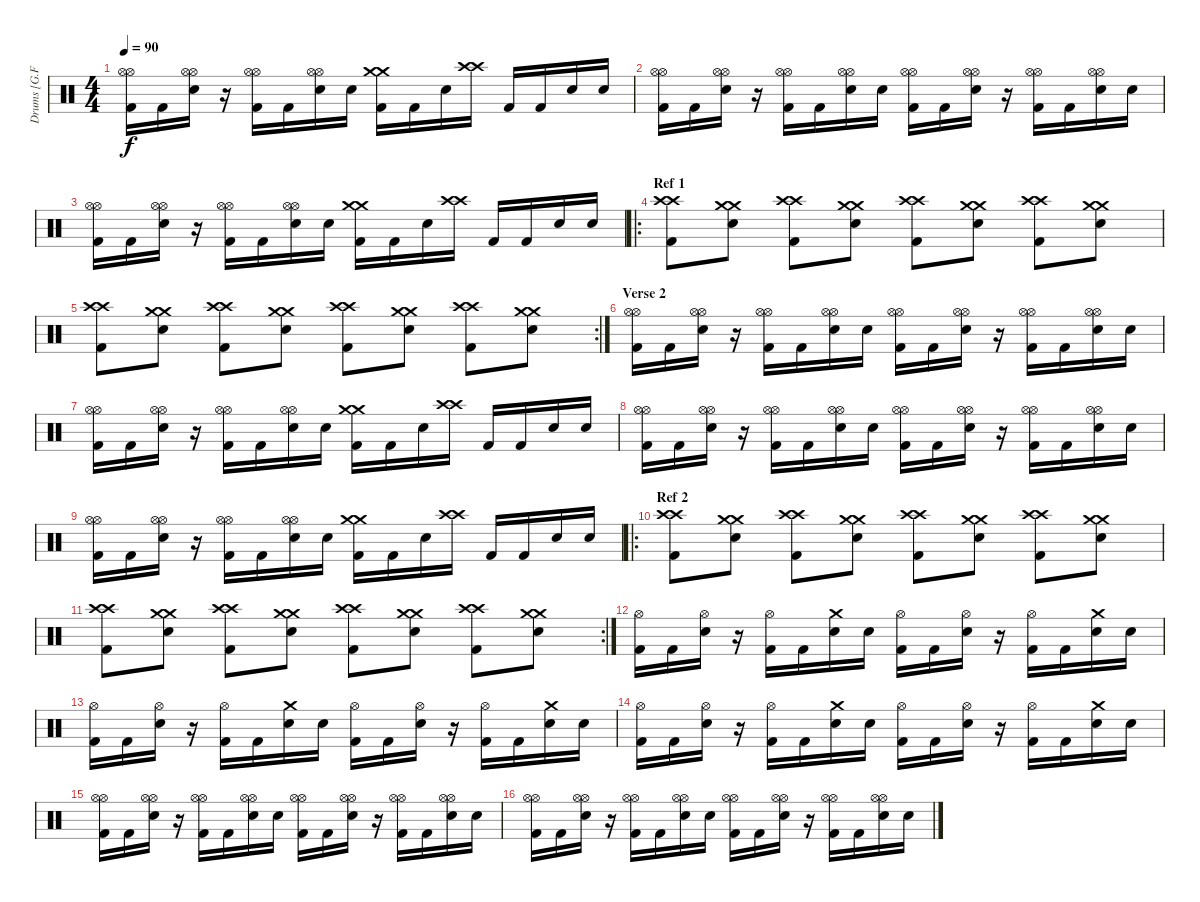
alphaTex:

\track ("Drums [G.Fish]" "Drums [G.F") {instrument percussion}
\staff {score}
\articulation defaults
\ts (4 4)
\tempo 90
\clef neutral
\ks c
("Hi-Hat (open)" "Hi-Hat (open)" "Kick (hit) 2").16{dy f} "Kick (hit) 2".16 ("Hi-Hat (open)" "Hi-Hat (open)" "Snare (hit) 2").16 r.16 ("Hi-Hat (open)" "Hi-Hat (open)" "Kick (hit) 2").16 "Kick (hit) 2".16 ("Hi-Hat (open)" "Hi-Hat (open)" "Snare (hit) 2").16 "Snare (hit) 2".16 ("Crash medium (hit)" "Crash medium (hit)" "Kick (hit) 2").16 "Kick (hit) 2".16 "Snare (hit) 2".16 ("Crash high (hit)" "Crash high (hit)").16 "Kick (hit) 2".16 "Kick (hit) 2".16 "Snare (hit) 2".16 "Snare (hit) 2".16 |
("Hi-Hat (open)" "Hi-Hat (open)" "Kick (hit) 2").16 "Kick (hit) 2".16 ("Hi-Hat (open)" "Hi-Hat (open)" "Snare (hit) 2").16 r.16 ("Hi-Hat (open)" "Hi-Hat (open)" "Kick (hit) 2").16 "Kick (hit) 2".16 ("Hi-Hat (open)" "Hi-Hat (open)" "Snare (hit) 2").16 "Snare (hit) 2".16 ("Hi-Hat (open)" "Hi-Hat (open)" "Kick (hit) 2").16 "Kick (hit) 2".16 ("Hi-Hat (open)" "Hi-Hat (open)" "Snare (hit) 2").16 r.16 ("Hi-Hat (open)" "Hi-Hat (open)" "Kick (hit) 2").16 "Kick (hit) 2".16 ("Hi-Hat (open)" "Hi-Hat (open)" "Snare (hit) 2").16 "Snare (hit) 2".16 |
("Hi-Hat (open)" "Hi-Hat (open)" "Kick (hit) 2").16 "Kick (hit) 2".16 ("Hi-Hat (open)" "Hi-Hat (open)" "Snare (hit) 2").16 r.16 ("Hi-Hat (open)" "Hi-Hat (open)" "Kick (hit) 2").16 "Kick (hit) 2".16 ("Hi-Hat (open)" "Hi-Hat (open)" "Snare (hit) 2").16 "Snare (hit) 2".16 ("Crash medium (hit)" "Crash medium (hit)" "Kick (hit) 2").16 "Kick (hit) 2".16 "Snare (hit) 2".16 ("Crash high (hit)" "Crash high (hit)").16 "Kick (hit) 2".16 "Kick (hit) 2".16 "Snare (hit) 2".16 "Snare (hit) 2".16 |
\ro
\section ("" "Ref 1")
("Crash high (hit)" "Crash high (hit)" "Kick (hit) 2").8 ("Crash medium (hit)" "Crash medium (hit)" "Snare (hit) 2").8 ("Crash high (hit)" "Crash high (hit)" "Kick (hit) 2").8 ("Crash medium (hit)" "Crash medium (hit)" "Snare (hit) 2").8 ("Crash high (hit)" "Crash high (hit)" "Kick (hit) 2").8 ("Crash medium (hit)" "Crash medium (hit)" "Snare (hit) 2").8 ("Crash high (hit)" "Crash high (hit)" "Kick (hit) 2").8 ("Crash medium (hit)" "Crash medium (hit)" "Snare (hit) 2").8 |
\rc 2
("Crash high (hit)" "Crash high (hit)" "Kick (hit) 2").8 ("Crash medium (hit)" "Crash medium (hit)" "Snare (hit) 2").8 ("Crash high (hit)" "Crash high (hit)" "Kick (hit) 2").8 ("Crash medium (hit)" "Crash medium (hit)" "Snare (hit) 2").8 ("Crash high (hit)" "Crash high (hit)" "Kick (hit) 2").8 ("Crash medium (hit)" "Crash medium (hit)" "Snare (hit) 2").8 ("Crash high (hit)" "Crash high (hit)" "Kick (hit) 2").8 ("Crash medium (hit)" "Crash medium (hit)" "Snare (hit) 2").8 |
\section ("" "Verse 2")
("Hi-Hat (open)" "Hi-Hat (open)" "Kick (hit) 2").16 "Kick (hit) 2".16 ("Hi-Hat (open)" "Hi-Hat (open)" "Snare (hit) 2").16 r.16 ("Hi-Hat (open)" "Hi-Hat (open)" "Kick (hit) 2").16 "Kick (hit) 2".16 ("Hi-Hat (open)" "Hi-Hat (open)" "Snare (hit) 2").16 "Snare (hit) 2".16 ("Hi-Hat (open)" "Hi-Hat (open)" "Kick (hit) 2").16 "Kick (hit) 2".16 ("Hi-Hat (open)" "Hi-Hat (open)" "Snare (hit) 2").16 r.16 ("Hi-Hat (open)" "Hi-Hat (open)" "Kick (hit) 2").16 "Kick (hit) 2".16 ("Hi-Hat (open)" "Hi-Hat (open)" "Snare (hit) 2").16 "Snare (hit) 2".16 |
("Hi-Hat (open)" "Hi-Hat (open)" "Kick (hit) 2").16 "Kick (hit) 2".16 ("Hi-Hat (open)" "Hi-Hat (open)" "Snare (hit) 2").16 r.16 ("Hi-Hat (open)" "Hi-Hat (open)" "Kick (hit) 2").16 "Kick (hit) 2".16 ("Hi-Hat (open)" "Hi-Hat (open)" "Snare (hit) 2").16 "Snare (hit) 2".16 ("Crash medium (hit)" "Crash medium (hit)" "Kick (hit) 2").16 "Kick (hit) 2".16 "Snare (hit) 2".16 ("Crash high (hit)" "Crash high (hit)").16 "Kick (hit) 2".16 "Kick (hit) 2".16 "Snare (hit) 2".16 "Snare (hit) 2".16 |
("Hi-Hat (open)" "Hi-Hat (open)" "Kick (hit) 2").16 "Kick (hit) 2".16 ("Hi-Hat (open)" "Hi-Hat (open)" "Snare (hit) 2").16 r.16 ("Hi-Hat (open)" "Hi-Hat (open)" "Kick (hit) 2").16 "Kick (hit) 2".16 ("Hi-Hat (open)" "Hi-Hat (open)" "Snare (hit) 2").16 "Snare (hit) 2".16 ("Hi-Hat (open)" "Hi-Hat (open)" "Kick (hit) 2").16 "Kick (hit) 2".16 ("Hi-Hat (open)" "Hi-Hat (open)" "Snare (hit) 2").16 r.16 ("Hi-Hat (open)" "Hi-Hat (open)" "Kick (hit) 2").16 "Kick (hit) 2".16 ("Hi-Hat (open)" "Hi-Hat (open)" "Snare (hit) 2").16 "Snare (hit) 2".16 |
("Hi-Hat (open)" "Hi-Hat (open)" "Kick (hit) 2").16 "Kick (hit) 2".16 ("Hi-Hat (open)" "Hi-Hat (open)" "Snare (hit) 2").16 r.16 ("Hi-Hat (open)" "Hi-Hat (open)" "Kick (hit) 2").16 "Kick (hit) 2".16 ("Hi-Hat (open)" "Hi-Hat (open)" "Snare (hit) 2").16 "Snare (hit) 2".16 ("Crash medium (hit)" "Crash medium (hit)" "Kick (hit) 2").16 "Kick (hit) 2".16 "Snare (hit) 2".16 ("Crash high (hit)" "Crash high (hit)").16 "Kick (hit) 2".16 "Kick (hit) 2".16 "Snare (hit) 2".16 "Snare (hit) 2".16 |
\ro
\section ("" "Ref 2")
("Crash high (hit)" "Crash high (hit)" "Kick (hit) 2").8 ("Crash medium (hit)" "Crash medium (hit)" "Snare (hit) 2").8 ("Crash high (hit)" "Crash high (hit)" "Kick (hit) 2").8 ("Crash medium (hit)" "Crash medium (hit)" "Snare (hit) 2").8 ("Crash high (hit)" "Crash high (hit)" "Kick (hit) 2").8 ("Crash medium (hit)" "Crash medium (hit)" "Snare (hit) 2").8 ("Crash high (hit)" "Crash high (hit)" "Kick (hit) 2").8 ("Crash medium (hit)" "Crash medium (hit)" "Snare (hit) 2").8 |
\rc 2
("Crash high (hit)" "Crash high (hit)" "Kick (hit) 2").8 ("Crash medium (hit)" "Crash medium (hit)" "Snare (hit) 2").8 ("Crash high (hit)" "Crash high (hit)" "Kick (hit) 2").8 ("Crash medium (hit)" "Crash medium (hit)" "Snare (hit) 2").8 ("Crash high (hit)" "Crash high (hit)" "Kick (hit) 2").8 ("Crash medium (hit)" "Crash medium (hit)" "Snare (hit) 2").8 ("Crash high (hit)" "Crash high (hit)" "Kick (hit) 2").8 ("Crash medium (hit)" "Crash medium (hit)" "Snare (hit) 2").8 |
("Hi-Hat (open)" "Kick (hit) 2").16 "Kick (hit) 2".16 ("Hi-Hat (open)" "Snare (hit) 2").16 r.16 ("Hi-Hat (open)" "Kick (hit) 2").16 "Kick (hit) 2".16 ("Crash medium (hit)" "Snare (hit) 2").16 "Snare (hit) 2".16 ("Hi-Hat (open)" "Kick (hit) 2").16 "Kick (hit) 2".16 ("Hi-Hat (open)" "Snare (hit) 2").16 r.16 ("Hi-Hat (open)" "Kick (hit) 2").16 "Kick (hit) 2".16 ("Crash medium (hit)" "Snare (hit) 2").16 "Snare (hit) 2".16 |
("Hi-Hat (open)" "Kick (hit) 2").16 "Kick (hit) 2".16 ("Hi-Hat (open)" "Snare (hit) 2").16 r.16 ("Hi-Hat (open)" "Kick (hit) 2").16 "Kick (hit) 2".16 ("Crash medium (hit)" "Snare (hit) 2").16 "Snare (hit) 2".16 ("Hi-Hat (open)" "Kick (hit) 2").16 "Kick (hit) 2".16 ("Hi-Hat (open)" "Snare (hit) 2").16 r.16 ("Hi-Hat (open)" "Kick (hit) 2").16 "Kick (hit) 2".16 ("Crash medium (hit)" "Snare (hit) 2").16 "Snare (hit) 2".16 |
("Hi-Hat (open)" "Kick (hit) 2").16 "Kick (hit) 2".16 ("Hi-Hat (open)" "Snare (hit) 2").16 r.16 ("Hi-Hat (open)" "Kick (hit) 2").16 "Kick (hit) 2".16 ("Crash medium (hit)" "Snare (hit) 2").16 "Snare (hit) 2".16 ("Hi-Hat (open)" "Kick (hit) 2").16 "Kick (hit) 2".16 ("Hi-Hat (open)" "Snare (hit) 2").16 r.16 ("Hi-Hat (open)" "Kick (hit) 2").16 "Kick (hit) 2".16 ("Crash medium (hit)" "Snare (hit) 2").16 "Snare (hit) 2".16 |
("Hi-Hat (open)" "Hi-Hat (open)" "Kick (hit) 2").16 "Kick (hit) 2".16 ("Hi-Hat (open)" "Hi-Hat (open)" "Snare (hit) 2").16 r.16 ("Hi-Hat (open)" "Hi-Hat (open)" "Kick (hit) 2").16 "Kick (hit) 2".16 ("Hi-Hat (open)" "Hi-Hat (open)" "Snare (hit) 2").16 "Snare (hit) 2".16 ("Hi-Hat (open)" "Hi-Hat (open)" "Kick (hit) 2").16 "Kick (hit) 2".16 ("Hi-Hat (open)" "Hi-Hat (open)" "Snare (hit) 2").16 r.16 ("Hi-Hat (open)" "Hi-Hat (open)" "Kick (hit) 2").16 "Kick (hit) 2".16 ("Hi-Hat (open)" "Hi-Hat (open)" "Snare (hit) 2").16 "Snare (hit) 2".16 |
("Hi-Hat (open)" "Hi-Hat (open)" "Kick (hit) 2").16 "Kick (hit) 2".16 ("Hi-Hat (open)" "Hi-Hat (open)" "Snare (hit) 2").16 r.16 ("Hi-Hat (open)" "Hi-Hat (open)" "Kick (hit) 2").16 "Kick (hit) 2".16 ("Hi-Hat (open)" "Hi-Hat (open)" "Snare (hit) 2").16 "Snare (hit) 2".16 ("Hi-Hat (open)" "Hi-Hat (open)" "Kick (hit) 2").16 "Kick (hit) 2".16 ("Hi-Hat (open)" "Hi-Hat (open)" "Snare (hit) 2").16 r.16 ("Hi-Hat (open)" "Hi-Hat (open)" "Kick (hit) 2").16 "Kick (hit) 2".16 ("Hi-Hat (open)" "Hi-Hat (open)" "Snare (hit) 2").16 "Snare (hit) 2".16
